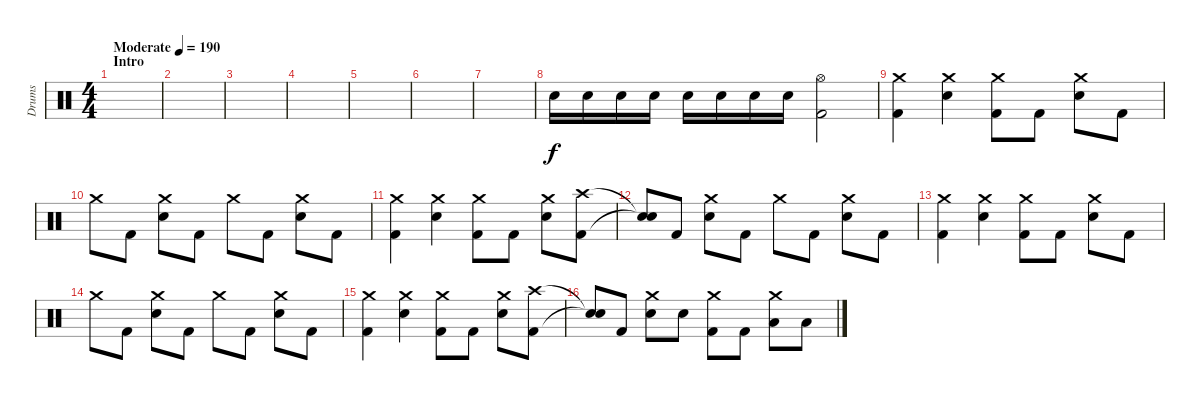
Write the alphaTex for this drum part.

\track ("Drums" "Drums") {instrument percussion}
\staff {score}
\articulation defaults
\ts (4 4)
\section ("" "Intro")
\tempo (190 "Moderate")
\clef neutral
\ks c
|
|
|
|
|
|
|
"Electric Snare (hit)".16 "Electric Snare (hit)".16 "Electric Snare (hit)".16 "Electric Snare (hit)".16 "Electric Snare (hit)".16 "Electric Snare (hit)".16 "Electric Snare (hit)".16 "Electric Snare (hit)".16 ("Hi-Hat (open)" "Kick (hit) 2").2 |
("Crash medium (hit)" "Kick (hit) 2").4 ("Crash medium (hit)" "Electric Snare (hit)").4 ("Crash medium (hit)" "Kick (hit) 2").8 "Kick (hit) 2".8 ("Crash medium (hit)" "Electric Snare (hit)").8 "Kick (hit) 2".8 |
"Crash medium (hit)".8 "Kick (hit) 2".8 ("Crash medium (hit)" "Electric Snare (hit)").8 "Kick (hit) 2".8 "Crash medium (hit)".8 "Kick (hit) 2".8 ("Crash medium (hit)" "Electric Snare (hit)").8 "Kick (hit) 2".8 |
("Crash medium (hit)" "Kick (hit) 2").4 ("Crash medium (hit)" "Electric Snare (hit)").4 ("Crash medium (hit)" "Kick (hit) 2").8 "Kick (hit) 2".8 ("Crash medium (hit)" "Electric Snare (hit)").8 ("Crash high (hit)" "Kick (hit) 2").8 |
("Snare (hit)"{t} "Snare (hit)"{t}).8 "Kick (hit) 2".8 ("Crash medium (hit)" "Electric Snare (hit)").8 "Kick (hit) 2".8 "Crash medium (hit)".8 "Kick (hit) 2".8 ("Crash medium (hit)" "Electric Snare (hit)").8 "Kick (hit) 2".8 |
("Crash medium (hit)" "Kick (hit) 2").4 ("Crash medium (hit)" "Electric Snare (hit)").4 ("Crash medium (hit)" "Kick (hit) 2").8 "Kick (hit) 2".8 ("Crash medium (hit)" "Electric Snare (hit)").8 "Kick (hit) 2".8 |
"Crash medium (hit)".8 "Kick (hit) 2".8 ("Crash medium (hit)" "Electric Snare (hit)").8 "Kick (hit) 2".8 "Crash medium (hit)".8 "Kick (hit) 2".8 ("Crash medium (hit)" "Electric Snare (hit)").8 "Kick (hit) 2".8 |
("Crash medium (hit)" "Kick (hit) 2").4 ("Crash medium (hit)" "Electric Snare (hit)").4 ("Crash medium (hit)" "Kick (hit) 2").8 "Kick (hit) 2".8 ("Crash medium (hit)" "Electric Snare (hit)").8 ("Crash high (hit)" "Kick (hit) 2").8 |
("Snare (hit)"{t} "Snare (hit)"{t}).8 "Kick (hit) 2".8 ("Crash medium (hit)" "Electric Snare (hit)").8 "Electric Snare (hit)".8 ("Crash medium (hit)" "Kick (hit) 2").8 "Kick (hit) 2".8 ("Crash medium (hit)" "Low Tom (hit)").8 "Low Tom (hit)".8
